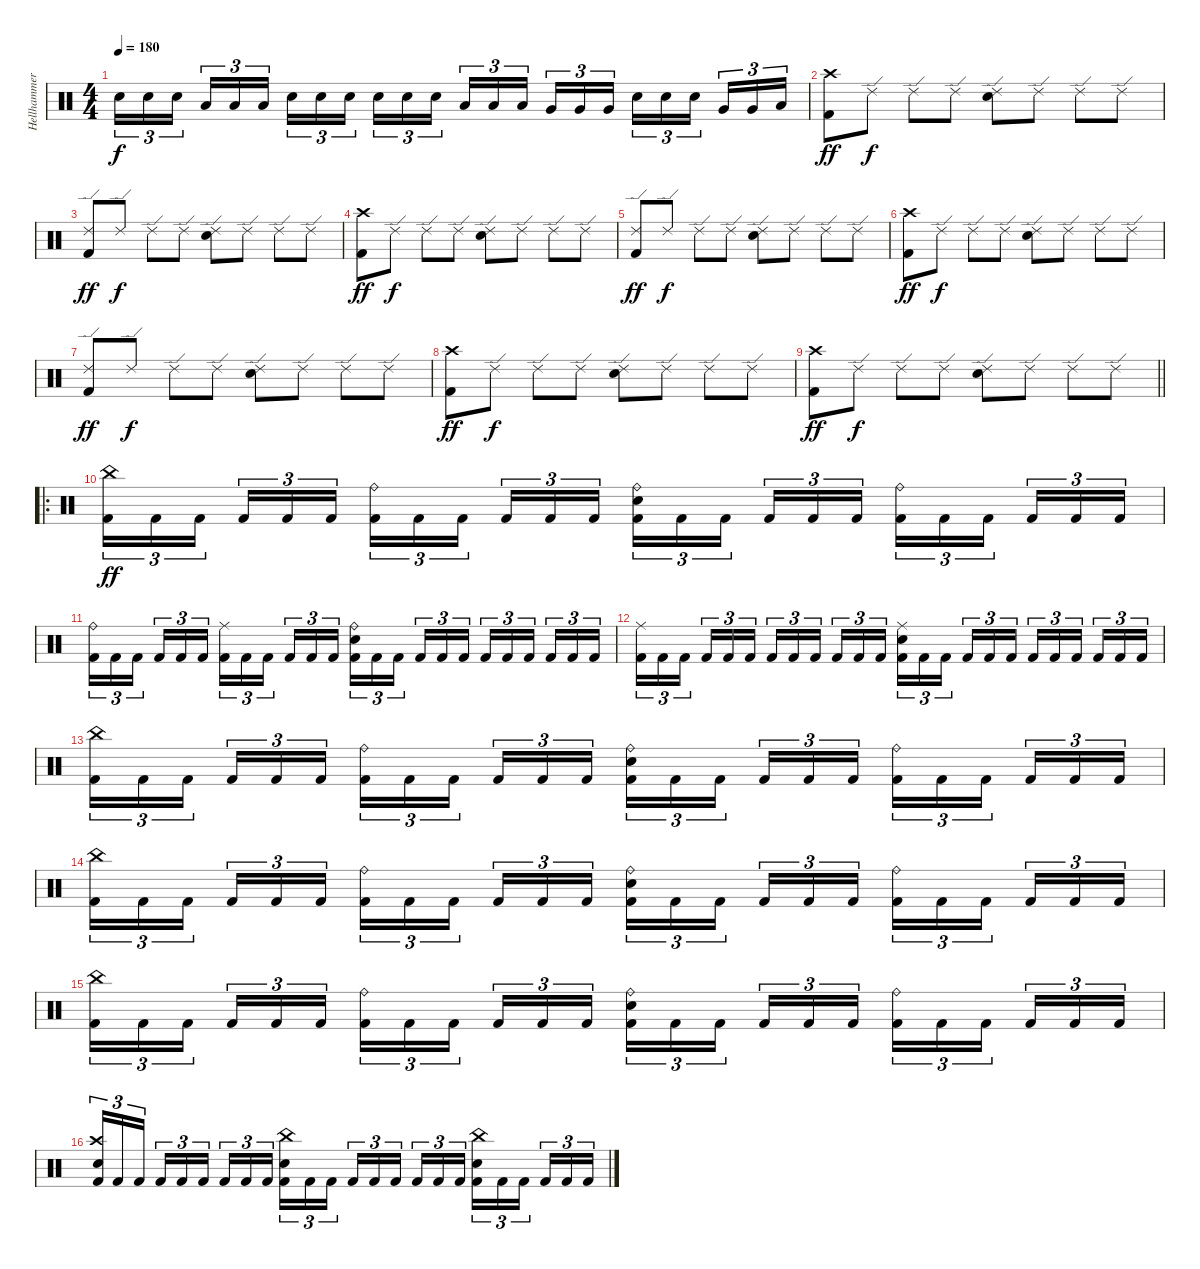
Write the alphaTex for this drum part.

\track ("Hellhammer" "Hellhammer") {instrument percussion}
\staff {score}
\articulation defaults
\ts (4 4)
\tempo 180
\clef neutral
\ks c "Electric Snare (hit)".16{tu (3 2) dy f} "Electric Snare (hit)".16{tu (3 2)} "Electric Snare (hit)".16{tu (3 2) beam splitsecondary} "Low Tom (hit)".16{tu (3 2)} "Low Tom (hit)".16{tu (3 2)} "Low Tom (hit)".16{tu (3 2)} "Electric Snare (hit)".16{tu (3 2)} "Electric Snare (hit)".16{tu (3 2)} "Electric Snare (hit)".16{tu (3 2) beam splitsecondary} "Electric Snare (hit)".16{tu (3 2)} "Electric Snare (hit)".16{tu (3 2)} "Electric Snare (hit)".16{tu (3 2)} "Low Tom (hit)".16{tu (3 2)} "Low Tom (hit)".16{tu (3 2)} "Low Tom (hit)".16{tu (3 2) beam splitsecondary} "Very Low Tom (hit)".16{tu (3 2)} "Very Low Tom (hit)".16{tu (3 2)} "Very Low Tom (hit)".16{tu (3 2)} "Electric Snare (hit)".16{tu (3 2)} "Electric Snare (hit)".16{tu (3 2)} "Electric Snare (hit)".16{tu (3 2) beam splitsecondary} "Very Low Tom (hit)".16{tu (3 2)} "Very Low Tom (hit)".16{tu (3 2)} "Low Floor Tom (hit)".16{tu (3 2)}
|
("Crash high (hit)" "Kick (hit) 2").8{dy ff} "Ride (edge) 2".8{dy f} "Ride (edge) 2".8 "Ride (edge) 2".8 ("Ride (edge) 2" "Electric Snare (hit)").8 "Ride (edge) 2".8 "Ride (edge) 2".8 "Ride (edge) 2".8 |
("Ride (edge) 2" "Kick (hit) 2").8{dy ff} "Ride (edge) 2".8{dy f} "Ride (edge) 2".8 "Ride (edge) 2".8 ("Ride (edge) 2" "Electric Snare (hit)").8 "Ride (edge) 2".8 "Ride (edge) 2".8 "Ride (edge) 2".8 |
("Crash high (hit)" "Kick (hit) 2").8{dy ff} "Ride (edge) 2".8{dy f} "Ride (edge) 2".8 "Ride (edge) 2".8 ("Ride (edge) 2" "Electric Snare (hit)").8 "Ride (edge) 2".8 "Ride (edge) 2".8 "Ride (edge) 2".8 |
("Ride (edge) 2" "Kick (hit) 2").8{dy ff} "Ride (edge) 2".8{dy f} "Ride (edge) 2".8 "Ride (edge) 2".8 ("Ride (edge) 2" "Electric Snare (hit)").8 "Ride (edge) 2".8 "Ride (edge) 2".8 "Ride (edge) 2".8 |
("Crash high (hit)" "Kick (hit) 2").8{dy ff} "Ride (edge) 2".8{dy f} "Ride (edge) 2".8 "Ride (edge) 2".8 ("Ride (edge) 2" "Electric Snare (hit)").8 "Ride (edge) 2".8 "Ride (edge) 2".8 "Ride (edge) 2".8 |
("Ride (edge) 2" "Kick (hit) 2").8{dy ff} "Ride (edge) 2".8{dy f} "Ride (edge) 2".8 "Ride (edge) 2".8 ("Ride (edge) 2" "Electric Snare (hit)").8 "Ride (edge) 2".8 "Ride (edge) 2".8 "Ride (edge) 2".8 |
("Crash high (hit)" "Kick (hit) 2").8{dy ff} "Ride (edge) 2".8{dy f} "Ride (edge) 2".8 "Ride (edge) 2".8 ("Ride (edge) 2" "Electric Snare (hit)").8 "Ride (edge) 2".8 "Ride (edge) 2".8 "Ride (edge) 2".8 |
\barLineRight lightlight
("Crash high (hit)" "Kick (hit) 2").8{dy ff} "Ride (edge) 2".8{dy f} "Ride (edge) 2".8 "Ride (edge) 2".8 ("Ride (edge) 2" "Electric Snare (hit)").8 "Ride (edge) 2".8 "Ride (edge) 2".8 "Ride (edge) 2".8 |
\ro
("China (hit)" "Kick (hit) 2").16{tu (3 2) dy ff} "Kick (hit) 2".16{tu (3 2)} "Kick (hit) 2".16{tu (3 2) beam splitsecondary} "Kick (hit) 2".16{tu (3 2)} "Kick (hit) 2".16{tu (3 2)} "Kick (hit) 2".16{tu (3 2)} ("Ride (bell)" "Kick (hit) 2").16{tu (3 2)} "Kick (hit) 2".16{tu (3 2)} "Kick (hit) 2".16{tu (3 2) beam splitsecondary} "Kick (hit) 2".16{tu (3 2)} "Kick (hit) 2".16{tu (3 2)} "Kick (hit) 2".16{tu (3 2)} ("Ride (bell)" "Electric Snare (hit)" "Kick (hit) 2").16{tu (3 2)} "Kick (hit) 2".16{tu (3 2)} "Kick (hit) 2".16{tu (3 2) beam splitsecondary} "Kick (hit) 2".16{tu (3 2)} "Kick (hit) 2".16{tu (3 2)} "Kick (hit) 2".16{tu (3 2)} ("Ride (bell)" "Kick (hit) 2").16{tu (3 2)} "Kick (hit) 2".16{tu (3 2)} "Kick (hit) 2".16{tu (3 2) beam splitsecondary} "Kick (hit) 2".16{tu (3 2)} "Kick (hit) 2".16{tu (3 2)} "Kick (hit) 2".16{tu (3 2)} |
("Ride (bell)" "Kick (hit) 2").16{tu (3 2)} "Kick (hit) 2".16{tu (3 2)} "Kick (hit) 2".16{tu (3 2) beam splitsecondary} "Kick (hit) 2".16{tu (3 2)} "Kick (hit) 2".16{tu (3 2)} "Kick (hit) 2".16{tu (3 2)} ("Ride (middle)" "Kick (hit) 2").16{tu (3 2)} "Kick (hit) 2".16{tu (3 2)} "Kick (hit) 2".16{tu (3 2) beam splitsecondary} "Kick (hit) 2".16{tu (3 2)} "Kick (hit) 2".16{tu (3 2)} "Kick (hit) 2".16{tu (3 2)} ("Ride (bell)" "Electric Snare (hit)" "Kick (hit) 2").16{tu (3 2)} "Kick (hit) 2".16{tu (3 2)} "Kick (hit) 2".16{tu (3 2) beam splitsecondary} "Kick (hit) 2".16{tu (3 2)} "Kick (hit) 2".16{tu (3 2)} "Kick (hit) 2".16{tu (3 2)} "Kick (hit) 2".16{tu (3 2)} "Kick (hit) 2".16{tu (3 2)} "Kick (hit) 2".16{tu (3 2) beam splitsecondary} "Kick (hit) 2".16{tu (3 2)} "Kick (hit) 2".16{tu (3 2)} "Kick (hit) 2".16{tu (3 2)} |
("Ride (middle)" "Kick (hit) 2").16{tu (3 2)} "Kick (hit) 2".16{tu (3 2)} "Kick (hit) 2".16{tu (3 2) beam splitsecondary} "Kick (hit) 2".16{tu (3 2)} "Kick (hit) 2".16{tu (3 2)} "Kick (hit) 2".16{tu (3 2)} "Kick (hit) 2".16{tu (3 2)} "Kick (hit) 2".16{tu (3 2)} "Kick (hit) 2".16{tu (3 2) beam splitsecondary} "Kick (hit) 2".16{tu (3 2)} "Kick (hit) 2".16{tu (3 2)} "Kick (hit) 2".16{tu (3 2)} ("Ride (middle)" "Electric Snare (hit)" "Kick (hit) 2").16{tu (3 2)} "Kick (hit) 2".16{tu (3 2)} "Kick (hit) 2".16{tu (3 2) beam splitsecondary} "Kick (hit) 2".16{tu (3 2)} "Kick (hit) 2".16{tu (3 2)} "Kick (hit) 2".16{tu (3 2)} "Kick (hit) 2".16{tu (3 2)} "Kick (hit) 2".16{tu (3 2)} "Kick (hit) 2".16{tu (3 2) beam splitsecondary} "Kick (hit) 2".16{tu (3 2)} "Kick (hit) 2".16{tu (3 2)} "Kick (hit) 2".16{tu (3 2)} |
("China (hit)" "Kick (hit) 2").16{tu (3 2)} "Kick (hit) 2".16{tu (3 2)} "Kick (hit) 2".16{tu (3 2) beam splitsecondary} "Kick (hit) 2".16{tu (3 2)} "Kick (hit) 2".16{tu (3 2)} "Kick (hit) 2".16{tu (3 2)} ("Ride (bell)" "Kick (hit) 2").16{tu (3 2)} "Kick (hit) 2".16{tu (3 2)} "Kick (hit) 2".16{tu (3 2) beam splitsecondary} "Kick (hit) 2".16{tu (3 2)} "Kick (hit) 2".16{tu (3 2)} "Kick (hit) 2".16{tu (3 2)} ("Ride (bell)" "Electric Snare (hit)" "Kick (hit) 2").16{tu (3 2)} "Kick (hit) 2".16{tu (3 2)} "Kick (hit) 2".16{tu (3 2) beam splitsecondary} "Kick (hit) 2".16{tu (3 2)} "Kick (hit) 2".16{tu (3 2)} "Kick (hit) 2".16{tu (3 2)} ("Ride (bell)" "Kick (hit) 2").16{tu (3 2)} "Kick (hit) 2".16{tu (3 2)} "Kick (hit) 2".16{tu (3 2) beam splitsecondary} "Kick (hit) 2".16{tu (3 2)} "Kick (hit) 2".16{tu (3 2)} "Kick (hit) 2".16{tu (3 2)} |
("China (hit)" "Kick (hit) 2").16{tu (3 2)} "Kick (hit) 2".16{tu (3 2)} "Kick (hit) 2".16{tu (3 2) beam splitsecondary} "Kick (hit) 2".16{tu (3 2)} "Kick (hit) 2".16{tu (3 2)} "Kick (hit) 2".16{tu (3 2)} ("Ride (bell)" "Kick (hit) 2").16{tu (3 2)} "Kick (hit) 2".16{tu (3 2)} "Kick (hit) 2".16{tu (3 2) beam splitsecondary} "Kick (hit) 2".16{tu (3 2)} "Kick (hit) 2".16{tu (3 2)} "Kick (hit) 2".16{tu (3 2)} ("Ride (bell)" "Electric Snare (hit)" "Kick (hit) 2").16{tu (3 2)} "Kick (hit) 2".16{tu (3 2)} "Kick (hit) 2".16{tu (3 2) beam splitsecondary} "Kick (hit) 2".16{tu (3 2)} "Kick (hit) 2".16{tu (3 2)} "Kick (hit) 2".16{tu (3 2)} ("Ride (bell)" "Kick (hit) 2").16{tu (3 2)} "Kick (hit) 2".16{tu (3 2)} "Kick (hit) 2".16{tu (3 2) beam splitsecondary} "Kick (hit) 2".16{tu (3 2)} "Kick (hit) 2".16{tu (3 2)} "Kick (hit) 2".16{tu (3 2)} |
("China (hit)" "Kick (hit) 2").16{tu (3 2)} "Kick (hit) 2".16{tu (3 2)} "Kick (hit) 2".16{tu (3 2) beam splitsecondary} "Kick (hit) 2".16{tu (3 2)} "Kick (hit) 2".16{tu (3 2)} "Kick (hit) 2".16{tu (3 2)} ("Ride (bell)" "Kick (hit) 2").16{tu (3 2)} "Kick (hit) 2".16{tu (3 2)} "Kick (hit) 2".16{tu (3 2) beam splitsecondary} "Kick (hit) 2".16{tu (3 2)} "Kick (hit) 2".16{tu (3 2)} "Kick (hit) 2".16{tu (3 2)} ("Ride (bell)" "Electric Snare (hit)" "Kick (hit) 2").16{tu (3 2)} "Kick (hit) 2".16{tu (3 2)} "Kick (hit) 2".16{tu (3 2) beam splitsecondary} "Kick (hit) 2".16{tu (3 2)} "Kick (hit) 2".16{tu (3 2)} "Kick (hit) 2".16{tu (3 2)} ("Ride (bell)" "Kick (hit) 2").16{tu (3 2)} "Kick (hit) 2".16{tu (3 2)} "Kick (hit) 2".16{tu (3 2) beam splitsecondary} "Kick (hit) 2".16{tu (3 2)} "Kick (hit) 2".16{tu (3 2)} "Kick (hit) 2".16{tu (3 2)} |
("Crash high (hit)" "Electric Snare (hit)" "Kick (hit) 2").16{tu (3 2)} "Kick (hit) 2".16{tu (3 2)} "Kick (hit) 2".16{tu (3 2) beam splitsecondary} "Kick (hit) 2".16{tu (3 2)} "Kick (hit) 2".16{tu (3 2)} "Kick (hit) 2".16{tu (3 2)} "Kick (hit) 2".16{tu (3 2)} "Kick (hit) 2".16{tu (3 2)} "Kick (hit) 2".16{tu (3 2) beam splitsecondary} ("China (hit)" "Electric Snare (hit)" "Kick (hit) 2").16{tu (3 2)} "Kick (hit) 2".16{tu (3 2)} "Kick (hit) 2".16{tu (3 2)} "Kick (hit) 2".16{tu (3 2)} "Kick (hit) 2".16{tu (3 2)} "Kick (hit) 2".16{tu (3 2) beam splitsecondary} "Kick (hit) 2".16{tu (3 2)} "Kick (hit) 2".16{tu (3 2)} "Kick (hit) 2".16{tu (3 2)} ("China (hit)" "Electric Snare (hit)" "Kick (hit) 2").16{tu (3 2)} "Kick (hit) 2".16{tu (3 2)} "Kick (hit) 2".16{tu (3 2) beam splitsecondary} "Kick (hit) 2".16{tu (3 2)} "Kick (hit) 2".16{tu (3 2)} "Kick (hit) 2".16{tu (3 2)}
